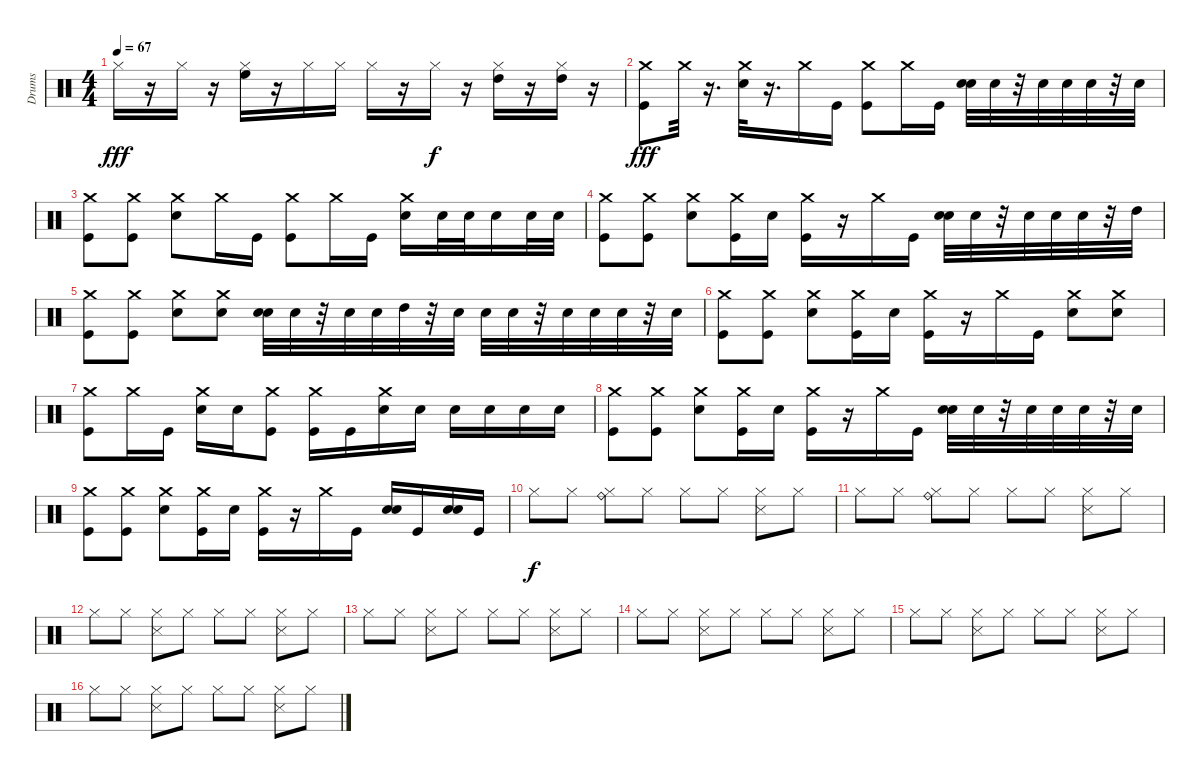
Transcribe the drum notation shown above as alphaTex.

\track ("Drums" "Drums") {instrument percussion}
\staff {score}
\articulation defaults
\ts (4 4)
\tempo 67
\clef neutral
\ks c "Hi-Hat (closed)".16{dy fff}
r.16 "Hi-Hat (closed)".16 r.16 ("Hi-Hat (closed)" "High Floor Tom (hit)").16 r.16 "Hi-Hat (closed)".16 "Hi-Hat (closed)".16 "Hi-Hat (closed)".16 r.16 "Hi-Hat (closed)".16{dy f} r.16 ("High Tom (hit)" "Hi-Hat (closed)").16 r.16 ("High Tom (hit)" "Hi-Hat (closed)").16 r.16 |
("Kick (hit)" "Crash medium (hit)").8{dy fff} "Crash medium (hit)".32 r.16{d} ("Snare (hit) 2" "Crash medium (hit)").32 r.16{d} "Crash medium (hit)".16 "Kick (hit)".16 ("Kick (hit)" "Crash medium (hit)").8 "Crash medium (hit)".16 "Kick (hit)".16 ("Snare (hit) 2" "Snare (hit) 2").32 "Snare (hit) 2".32 r.32 "Snare (hit) 2".32 "Snare (hit) 2".32 "Snare (hit) 2".32 r.32 "Snare (hit) 2".32 |
("Crash medium (hit)" "Kick (hit)").8 ("Crash medium (hit)" "Kick (hit)").8 ("Snare (hit) 2" "Crash medium (hit)").8 "Crash medium (hit)".16 "Kick (hit)".16 ("Kick (hit)" "Crash medium (hit)").8 "Crash medium (hit)".16 "Kick (hit)".16 ("Crash medium (hit)" "Snare (hit) 2").16 "Snare (hit) 2".32 "Snare (hit) 2".32 "Snare (hit) 2".16 "Snare (hit) 2".32 "Snare (hit) 2".32 |
("Crash medium (hit)" "Kick (hit)").8 ("Crash medium (hit)" "Kick (hit)").8 ("Crash medium (hit)" "Snare (hit) 2").8 ("Crash medium (hit)" "Kick (hit)").16 "Snare (hit) 2".16 ("Crash medium (hit)" "Kick (hit)").16 r.16 "Crash medium (hit)".16 "Kick (hit)".16 ("Snare (hit) 2" "Snare (hit) 2").32 "Snare (hit) 2".32 r.32 "Snare (hit) 2".32 "Snare (hit) 2".32 "Snare (hit) 2".32 r.32 "High Tom (hit)".32 |
("Crash medium (hit)" "Kick (hit)").8 ("Crash medium (hit)" "Kick (hit)").8 ("Snare (hit) 2" "Crash medium (hit)").8 ("Crash medium (hit)" "Snare (hit) 2").8 ("Snare (hit) 2" "Snare (hit) 2").32 "Snare (hit) 2".32 r.32 "Snare (hit) 2".32 "Snare (hit) 2".32 "High Tom (hit)".32 r.32 "Snare (hit) 2".32 "Snare (hit) 2".32 "Snare (hit) 2".32 r.32 "Snare (hit) 2".32 "Snare (hit) 2".32 "Snare (hit) 2".32 r.32 "Snare (hit) 2".32 |
("Crash medium (hit)" "Kick (hit)").8 ("Crash medium (hit)" "Kick (hit)").8 ("Snare (hit) 2" "Crash medium (hit)").8 ("Crash medium (hit)" "Kick (hit)").16 "Snare (hit) 2".16 ("Kick (hit)" "Crash medium (hit)").16 r.16 "Crash medium (hit)".16 "Kick (hit)".16 ("Crash medium (hit)" "Snare (hit) 2").8 ("Crash medium (hit)" "Snare (hit) 2").8 |
("Kick (hit)" "Crash medium (hit)").8 "Crash medium (hit)".16 "Kick (hit)".16 ("Crash medium (hit)" "Snare (hit) 2").16 "Snare (hit) 2".16 ("Kick (hit)" "Crash medium (hit)").8 ("Kick (hit)" "Crash medium (hit)").16 "Kick (hit)".16 ("Snare (hit) 2" "Crash medium (hit)").16 "Snare (hit) 2".16 "Snare (hit) 2".16 "Snare (hit) 2".16 "Snare (hit) 2".16 "Snare (hit) 2".16 |
("Crash medium (hit)" "Kick (hit)").8 ("Crash medium (hit)" "Kick (hit)").8 ("Crash medium (hit)" "Snare (hit) 2").8 ("Crash medium (hit)" "Kick (hit)").16 "Snare (hit) 2".16 ("Crash medium (hit)" "Kick (hit)").16 r.16 "Crash medium (hit)".16 "Kick (hit)".16 ("Snare (hit) 2" "Snare (hit) 2").32 "Snare (hit) 2".32 r.32 "Snare (hit) 2".32 "Snare (hit) 2".32 "Snare (hit) 2".32 r.32 "Snare (hit) 2".32 |
("Crash medium (hit)" "Kick (hit)").8 ("Crash medium (hit)" "Kick (hit)").8 ("Snare (hit) 2" "Crash medium (hit)").8 ("Crash medium (hit)" "Kick (hit)").16 "Snare (hit) 2".16 ("Crash medium (hit)" "Kick (hit)").16 r.16 "Crash medium (hit)".16 "Kick (hit)".16 ("Snare (hit) 2" "Snare (hit) 2").16 "Kick (hit)".16 ("Snare (hit) 2" "Snare (hit) 2").16 "Kick (hit)".16 |
"Hi-Hat (closed)".8{dy f} "Hi-Hat (closed)".8 ("Ride (bell)" "Hi-Hat (closed)").8 "Hi-Hat (closed)".8 "Hi-Hat (closed)".8 "Hi-Hat (closed)".8 ("Snare (side stick) 3" "Hi-Hat (closed)").8 "Hi-Hat (closed)".8 |
"Hi-Hat (closed)".8 "Hi-Hat (closed)".8 ("Ride (bell)" "Hi-Hat (closed)").8 "Hi-Hat (closed)".8 "Hi-Hat (closed)".8 "Hi-Hat (closed)".8 ("Snare (side stick) 3" "Hi-Hat (closed)").8 "Hi-Hat (closed)".8 |
"Hi-Hat (closed)".8 "Hi-Hat (closed)".8 ("Snare (side stick) 3" "Hi-Hat (closed)").8 "Hi-Hat (closed)".8 "Hi-Hat (closed)".8 "Hi-Hat (closed)".8 ("Snare (side stick) 3" "Hi-Hat (closed)").8 "Hi-Hat (closed)".8 |
"Hi-Hat (closed)".8 "Hi-Hat (closed)".8 ("Snare (side stick) 3" "Hi-Hat (closed)").8 "Hi-Hat (closed)".8 "Hi-Hat (closed)".8 "Hi-Hat (closed)".8 ("Snare (side stick) 3" "Hi-Hat (closed)").8 "Hi-Hat (closed)".8 |
"Hi-Hat (closed)".8 "Hi-Hat (closed)".8 ("Snare (side stick) 3" "Hi-Hat (closed)").8 "Hi-Hat (closed)".8 "Hi-Hat (closed)".8 "Hi-Hat (closed)".8 ("Snare (side stick) 3" "Hi-Hat (closed)").8 "Hi-Hat (closed)".8 |
"Hi-Hat (closed)".8 "Hi-Hat (closed)".8 ("Snare (side stick) 3" "Hi-Hat (closed)").8 "Hi-Hat (closed)".8 "Hi-Hat (closed)".8 "Hi-Hat (closed)".8 ("Snare (side stick) 3" "Hi-Hat (closed)").8 "Hi-Hat (closed)".8 |
"Hi-Hat (closed)".8 "Hi-Hat (closed)".8 ("Snare (side stick) 3" "Hi-Hat (closed)").8 "Hi-Hat (closed)".8 "Hi-Hat (closed)".8 "Hi-Hat (closed)".8 ("Snare (side stick) 3" "Hi-Hat (closed)").8 "Hi-Hat (closed)".8
